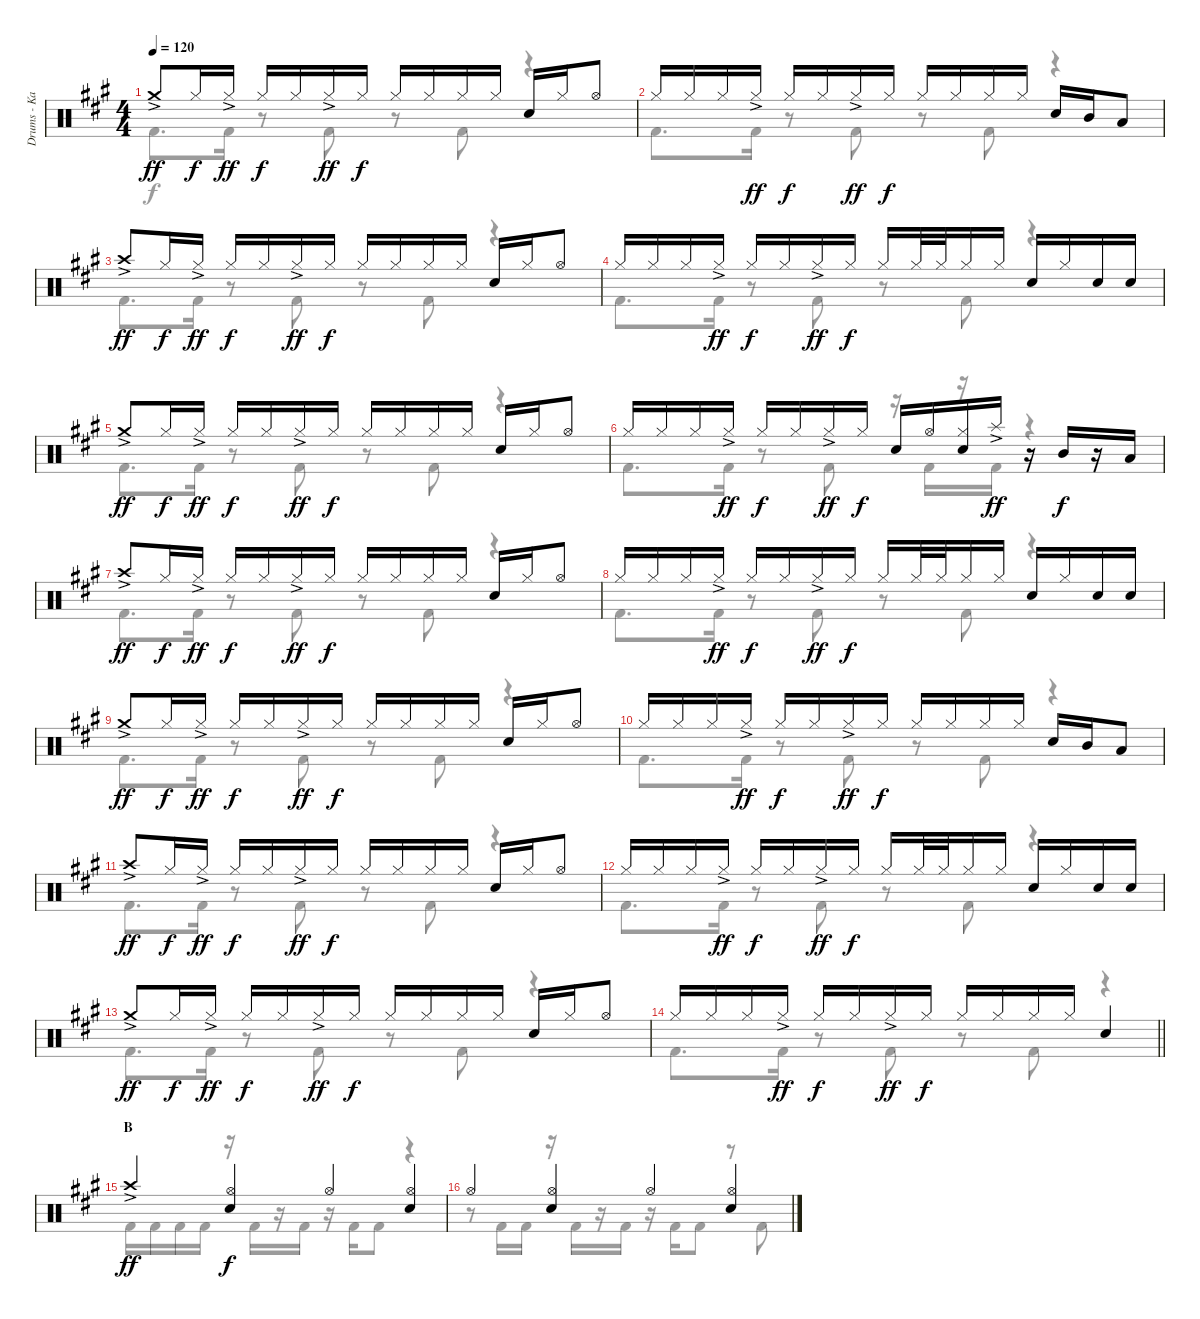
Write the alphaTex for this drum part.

\track ("Drums - Kai" "Drums - Ka") {instrument percussion}
\staff {score}
\articulation defaults
\voice
\ts (4 4)
\tempo 120
\clef neutral
\ks a "Crash medium (hit)"{ac}.8{dy ff} "Hi-Hat (closed)".16{dy f} "Hi-Hat (closed)"{ac}.16{dy ff} "Hi-Hat (closed)".16{dy f} "Hi-Hat (closed)".16 "Hi-Hat (closed)"{ac}.16{dy ff} "Hi-Hat (closed)".16{dy f} "Hi-Hat (closed)".16 "Hi-Hat (closed)".16 "Hi-Hat (closed)".16 "Hi-Hat (closed)".16 "Snare (hit) 2".16 "Hi-Hat (closed)".16 "Hi-Hat (open)".8
|
"Hi-Hat (closed)".16 "Hi-Hat (closed)".16 "Hi-Hat (closed)".16 "Hi-Hat (closed)"{ac}.16{dy ff} "Hi-Hat (closed)".16{dy f} "Hi-Hat (closed)".16 "Hi-Hat (closed)"{ac}.16{dy ff} "Hi-Hat (closed)".16{dy f} "Hi-Hat (closed)".16 "Hi-Hat (closed)".16 "Hi-Hat (closed)".16 "Hi-Hat (closed)".16 "Snare (hit) 2".16 "Mid Tom (hit)".16 "Low Tom (hit)".8 |
"Crash high (hit)"{ac}.8{dy ff} "Hi-Hat (closed)".16{dy f} "Hi-Hat (closed)"{ac}.16{dy ff} "Hi-Hat (closed)".16{dy f} "Hi-Hat (closed)".16 "Hi-Hat (closed)"{ac}.16{dy ff} "Hi-Hat (closed)".16{dy f} "Hi-Hat (closed)".16 "Hi-Hat (closed)".16 "Hi-Hat (closed)".16 "Hi-Hat (closed)".16 "Snare (hit) 2".16 "Hi-Hat (closed)".16 "Hi-Hat (open)".8 |
"Hi-Hat (closed)".16 "Hi-Hat (closed)".16 "Hi-Hat (closed)".16 "Hi-Hat (closed)"{ac}.16{dy ff} "Hi-Hat (closed)".16{dy f} "Hi-Hat (closed)".16 "Hi-Hat (closed)"{ac}.16{dy ff} "Hi-Hat (closed)".16{dy f} "Hi-Hat (closed)".16 "Hi-Hat (closed)".32 "Hi-Hat (closed)".32 "Hi-Hat (closed)".16 "Hi-Hat (closed)".16 "Snare (hit) 2".16 "Hi-Hat (closed)".16 "Snare (hit) 2".16 "Snare (hit) 2".16 |
"Crash medium (hit)"{ac}.8{dy ff} "Hi-Hat (closed)".16{dy f} "Hi-Hat (closed)"{ac}.16{dy ff} "Hi-Hat (closed)".16{dy f} "Hi-Hat (closed)".16 "Hi-Hat (closed)"{ac}.16{dy ff} "Hi-Hat (closed)".16{dy f} "Hi-Hat (closed)".16 "Hi-Hat (closed)".16 "Hi-Hat (closed)".16 "Hi-Hat (closed)".16 "Snare (hit) 2".16 "Hi-Hat (closed)".16 "Hi-Hat (open)".8 |
"Hi-Hat (closed)".16 "Hi-Hat (closed)".16 "Hi-Hat (closed)".16 "Hi-Hat (closed)"{ac}.16{dy ff} "Hi-Hat (closed)".16{dy f} "Hi-Hat (closed)".16 "Hi-Hat (closed)"{ac}.16{dy ff} "Hi-Hat (closed)".16{dy f} "Snare (hit) 2".16 "Hi-Hat (open)".16 ("Hi-Hat (closed)" "Snare (hit) 2").16 "Splash (hit)"{ac}.16{dy ff} r.16 "Mid Tom (hit)".16{dy f} r.16 "Low Tom (hit)".16 |
"Crash high (hit)"{ac}.8{dy ff} "Hi-Hat (closed)".16{dy f} "Hi-Hat (closed)"{ac}.16{dy ff} "Hi-Hat (closed)".16{dy f} "Hi-Hat (closed)".16 "Hi-Hat (closed)"{ac}.16{dy ff} "Hi-Hat (closed)".16{dy f} "Hi-Hat (closed)".16 "Hi-Hat (closed)".16 "Hi-Hat (closed)".16 "Hi-Hat (closed)".16 "Snare (hit) 2".16 "Hi-Hat (closed)".16 "Hi-Hat (open)".8 |
"Hi-Hat (closed)".16 "Hi-Hat (closed)".16 "Hi-Hat (closed)".16 "Hi-Hat (closed)"{ac}.16{dy ff} "Hi-Hat (closed)".16{dy f} "Hi-Hat (closed)".16 "Hi-Hat (closed)"{ac}.16{dy ff} "Hi-Hat (closed)".16{dy f} "Hi-Hat (closed)".16 "Hi-Hat (closed)".32 "Hi-Hat (closed)".32 "Hi-Hat (closed)".16 "Hi-Hat (closed)".16 "Snare (hit) 2".16 "Hi-Hat (closed)".16 "Snare (hit) 2".16 "Snare (hit) 2".16 |
"Crash medium (hit)"{ac}.8{dy ff} "Hi-Hat (closed)".16{dy f} "Hi-Hat (closed)"{ac}.16{dy ff} "Hi-Hat (closed)".16{dy f} "Hi-Hat (closed)".16 "Hi-Hat (closed)"{ac}.16{dy ff} "Hi-Hat (closed)".16{dy f} "Hi-Hat (closed)".16 "Hi-Hat (closed)".16 "Hi-Hat (closed)".16 "Hi-Hat (closed)".16 "Snare (hit) 2".16 "Hi-Hat (closed)".16 "Hi-Hat (open)".8 |
"Hi-Hat (closed)".16 "Hi-Hat (closed)".16 "Hi-Hat (closed)".16 "Hi-Hat (closed)"{ac}.16{dy ff} "Hi-Hat (closed)".16{dy f} "Hi-Hat (closed)".16 "Hi-Hat (closed)"{ac}.16{dy ff} "Hi-Hat (closed)".16{dy f} "Hi-Hat (closed)".16 "Hi-Hat (closed)".16 "Hi-Hat (closed)".16 "Hi-Hat (closed)".16 "Snare (hit) 2".16 "Mid Tom (hit)".16 "Low Tom (hit)".8 |
"Crash high (hit)"{ac}.8{dy ff} "Hi-Hat (closed)".16{dy f} "Hi-Hat (closed)"{ac}.16{dy ff} "Hi-Hat (closed)".16{dy f} "Hi-Hat (closed)".16 "Hi-Hat (closed)"{ac}.16{dy ff} "Hi-Hat (closed)".16{dy f} "Hi-Hat (closed)".16 "Hi-Hat (closed)".16 "Hi-Hat (closed)".16 "Hi-Hat (closed)".16 "Snare (hit) 2".16 "Hi-Hat (closed)".16 "Hi-Hat (open)".8 |
"Hi-Hat (closed)".16 "Hi-Hat (closed)".16 "Hi-Hat (closed)".16 "Hi-Hat (closed)"{ac}.16{dy ff} "Hi-Hat (closed)".16{dy f} "Hi-Hat (closed)".16 "Hi-Hat (closed)"{ac}.16{dy ff} "Hi-Hat (closed)".16{dy f} "Hi-Hat (closed)".16 "Hi-Hat (closed)".32 "Hi-Hat (closed)".32 "Hi-Hat (closed)".16 "Hi-Hat (closed)".16 "Snare (hit) 2".16 "Hi-Hat (closed)".16 "Snare (hit) 2".16 "Snare (hit) 2".16 |
"Crash medium (hit)"{ac}.8{dy ff} "Hi-Hat (closed)".16{dy f} "Hi-Hat (closed)"{ac}.16{dy ff} "Hi-Hat (closed)".16{dy f} "Hi-Hat (closed)".16 "Hi-Hat (closed)"{ac}.16{dy ff} "Hi-Hat (closed)".16{dy f} "Hi-Hat (closed)".16 "Hi-Hat (closed)".16 "Hi-Hat (closed)".16 "Hi-Hat (closed)".16 "Snare (hit) 2".16 "Hi-Hat (closed)".16 "Hi-Hat (open)".8 |
\barLineRight lightlight "Hi-Hat (closed)".16 "Hi-Hat (closed)".16 "Hi-Hat (closed)".16 "Hi-Hat (closed)"{ac}.16{dy ff} "Hi-Hat (closed)".16{dy f} "Hi-Hat (closed)".16 "Hi-Hat (closed)"{ac}.16{dy ff} "Hi-Hat (closed)".16{dy f} "Hi-Hat (closed)".16 "Hi-Hat (closed)".16 "Hi-Hat (closed)".16 "Hi-Hat (closed)".16 "Snare (hit) 2".4
|
\section ("" "B")
"Crash high (hit)"{ac}.4{dy ff} ("Hi-Hat (open)" "Snare (hit) 2").4{dy f} "Hi-Hat (open)".4 ("Hi-Hat (open)" "Snare (hit) 2").4 |
"Hi-Hat (open)".4 ("Hi-Hat (open)" "Snare (hit) 2").4 "Hi-Hat (open)".4 ("Hi-Hat (open)" "Snare (hit) 2").4
\voice
\clef neutral
\ottava regular
\simile none
\ks a "Kick (hit) 2".8{d dy f} "Kick (hit) 2".16
r.8 "Kick (hit) 2".8 r.8 "Kick (hit) 2".8 r.4 |
"Kick (hit) 2".8{d} "Kick (hit) 2".16 r.8 "Kick (hit) 2".8 r.8 "Kick (hit) 2".8 r.4 |
"Kick (hit) 2".8{d} "Kick (hit) 2".16 r.8 "Kick (hit) 2".8 r.8 "Kick (hit) 2".8 r.4 |
"Kick (hit) 2".8{d} "Kick (hit) 2".16 r.8 "Kick (hit) 2".8 r.8 "Kick (hit) 2".8 r.4 |
"Kick (hit) 2".8{d} "Kick (hit) 2".16 r.8 "Kick (hit) 2".8 r.8 "Kick (hit) 2".8 r.4 |
"Kick (hit) 2".8{d} "Kick (hit) 2".16 r.8 "Kick (hit) 2".8 r.16 "Kick (hit) 2".16 r.16 "Kick (hit) 2".16 r.4 |
"Kick (hit) 2".8{d} "Kick (hit) 2".16 r.8 "Kick (hit) 2".8 r.8 "Kick (hit) 2".8 r.4 |
"Kick (hit) 2".8{d} "Kick (hit) 2".16 r.8 "Kick (hit) 2".8 r.8 "Kick (hit) 2".8 r.4 |
"Kick (hit) 2".8{d} "Kick (hit) 2".16 r.8 "Kick (hit) 2".8 r.8 "Kick (hit) 2".8 r.4 |
"Kick (hit) 2".8{d} "Kick (hit) 2".16 r.8 "Kick (hit) 2".8 r.8 "Kick (hit) 2".8 r.4 |
"Kick (hit) 2".8{d} "Kick (hit) 2".16 r.8 "Kick (hit) 2".8 r.8 "Kick (hit) 2".8 r.4 |
"Kick (hit) 2".8{d} "Kick (hit) 2".16 r.8 "Kick (hit) 2".8 r.8 "Kick (hit) 2".8 r.4 |
"Kick (hit) 2".8{d} "Kick (hit) 2".16 r.8 "Kick (hit) 2".8 r.8 "Kick (hit) 2".8 r.4 |
\barLineRight lightlight "Kick (hit) 2".8{d} "Kick (hit) 2".16
r.8 "Kick (hit) 2".8 r.8 "Kick (hit) 2".8 r.4 |
"Kick (hit) 2".16 "Kick (hit) 2".16 "Kick (hit) 2".16 "Kick (hit) 2".16 r.16 "Kick (hit) 2".16 r.16 "Kick (hit) 2".16 r.16 "Kick (hit) 2".16 "Kick (hit) 2".8 r.4 |
r.8 "Kick (hit) 2".16 "Kick (hit) 2".16 r.16 "Kick (hit) 2".16 r.16 "Kick (hit) 2".16 r.16 "Kick (hit) 2".16 "Kick (hit) 2".8 r.8 "Kick (hit) 2".8
